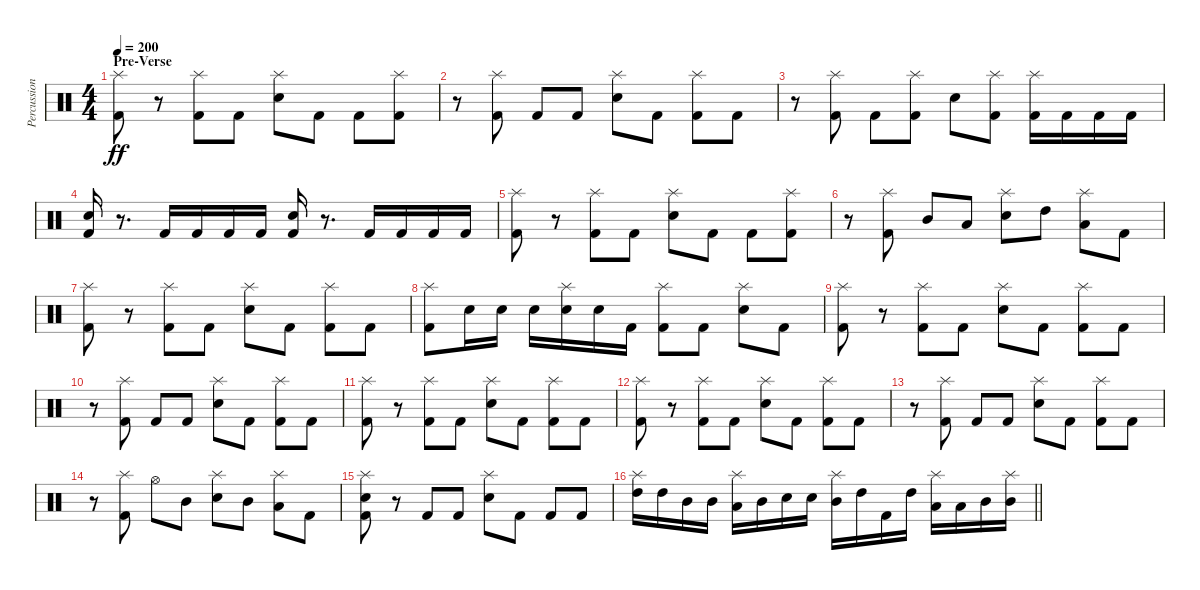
\track ("Percussion" "Percussion") {instrument percussion}
\staff {score}
\articulation defaults
\ts (4 4)
\section ("" "Pre-Verse")
\tempo 200
\clef neutral
\ks c
("Splash (hit)" "Kick (hit) 2").8{dy ff} r.8 ("Splash (hit)" "Kick (hit) 2").8 "Kick (hit) 2".8 ("Splash (hit)" "Electric Snare (hit)").8 "Kick (hit) 2".8 "Kick (hit) 2".8 ("Splash (hit)" "Kick (hit) 2").8 |
r.8 ("Splash (hit)" "Kick (hit) 2").8 "Kick (hit) 2".8 "Kick (hit) 2".8 ("Splash (hit)" "Electric Snare (hit)").8 "Kick (hit) 2".8 ("Splash (hit)" "Kick (hit) 2").8 "Kick (hit) 2".8 |
r.8 ("Splash (hit)" "Kick (hit) 2").8 "Kick (hit) 2".8 ("Splash (hit)" "Kick (hit) 2").8 "Electric Snare (hit)".8 ("Splash (hit)" "Kick (hit) 2").8 ("Splash (hit)" "Kick (hit) 2").16 "Kick (hit) 2".16 "Kick (hit) 2".16 "Kick (hit) 2".16 |
("Electric Snare (hit)" "Kick (hit) 2").16 r.8{d} "Kick (hit) 2".16 "Kick (hit) 2".16 "Kick (hit) 2".16 "Kick (hit) 2".16 ("Electric Snare (hit)" "Kick (hit) 2").16 r.8{d} "Kick (hit) 2".16 "Kick (hit) 2".16 "Kick (hit) 2".16 "Kick (hit) 2".16 |
("Splash (hit)" "Kick (hit) 2").8 r.8 ("Splash (hit)" "Kick (hit) 2").8 "Kick (hit) 2".8 ("Splash (hit)" "Electric Snare (hit)").8 "Kick (hit) 2".8 "Kick (hit) 2".8 ("Splash (hit)" "Kick (hit) 2").8 |
r.8 ("Splash (hit)" "Kick (hit) 2").8 "Mid Tom (hit)".8 "Low Tom (hit)".8 ("Splash (hit)" "Electric Snare (hit)").8 "High Tom (hit)".8 ("Splash (hit)" "Low Tom (hit)").8 "Kick (hit) 2".8 |
("Splash (hit)" "Kick (hit) 2").8 r.8 ("Splash (hit)" "Kick (hit) 2").8 "Kick (hit) 2".8 ("Splash (hit)" "Electric Snare (hit)").8 "Kick (hit) 2".8 ("Splash (hit)" "Kick (hit) 2").8 "Kick (hit) 2".8 |
("Splash (hit)" "Kick (hit) 2").8 "Electric Snare (hit)".16 "Electric Snare (hit)".16 "Electric Snare (hit)".16 ("Splash (hit)" "Electric Snare (hit)").16 "Electric Snare (hit)".16 "Kick (hit) 2".16 ("Splash (hit)" "Kick (hit) 2").8 "Kick (hit) 2".8 ("Splash (hit)" "Electric Snare (hit)").8 "Kick (hit) 2".8 |
("Splash (hit)" "Kick (hit) 2").8 r.8 ("Splash (hit)" "Kick (hit) 2").8 "Kick (hit) 2".8 ("Splash (hit)" "Electric Snare (hit)").8 "Kick (hit) 2".8 ("Splash (hit)" "Kick (hit) 2").8 "Kick (hit) 2".8 |
r.8 ("Splash (hit)" "Kick (hit) 2").8 "Kick (hit) 2".8 "Kick (hit) 2".8 ("Splash (hit)" "Electric Snare (hit)").8 "Kick (hit) 2".8 ("Splash (hit)" "Kick (hit) 2").8 "Kick (hit) 2".8 |
("Splash (hit)" "Kick (hit) 2").8 r.8 ("Splash (hit)" "Kick (hit) 2").8 "Kick (hit) 2".8 ("Splash (hit)" "Electric Snare (hit)").8 "Kick (hit) 2".8 ("Splash (hit)" "Kick (hit) 2").8 "Kick (hit) 2".8 |
("Splash (hit)" "Kick (hit) 2").8 r.8 ("Splash (hit)" "Kick (hit) 2").8 "Kick (hit) 2".8 ("Splash (hit)" "Electric Snare (hit)").8 "Kick (hit) 2".8 ("Splash (hit)" "Kick (hit) 2").8 "Kick (hit) 2".8 |
r.8 ("Splash (hit)" "Kick (hit) 2").8 "Kick (hit) 2".8 "Kick (hit) 2".8 ("Splash (hit)" "Electric Snare (hit)").8 "Kick (hit) 2".8 ("Splash (hit)" "Kick (hit) 2").8 "Kick (hit) 2".8 |
r.8 ("Splash (hit)" "Kick (hit) 2").8 "Hi-Hat (open)".8 "Mid Tom (hit)".8 ("Splash (hit)" "Electric Snare (hit)").8 "Mid Tom (hit)".8 ("Splash (hit)" "Low Tom (hit)").8 "Kick (hit) 2".8 |
("Splash (hit)" "Electric Snare (hit)" "Kick (hit) 2").8 r.8 "Kick (hit) 2".8 "Kick (hit) 2".8 ("Splash (hit)" "Electric Snare (hit)").8 "Kick (hit) 2".8 "Kick (hit) 2".8 "Kick (hit) 2".8 |
\barLineRight lightlight
("Splash (hit)" "High Tom (hit)").16 "High Tom (hit)".16 "Mid Tom (hit)".16 "Mid Tom (hit)".16 ("Splash (hit)" "Low Tom (hit)").16 "Mid Tom (hit)".16 "Electric Snare (hit)".16 "Electric Snare (hit)".16 ("Splash (hit)" "Mid Tom (hit)").16 "High Tom (hit)".16 "Kick (hit) 2".16 "High Tom (hit)".16 ("Splash (hit)" "Low Tom (hit)").16 "Low Tom (hit)".16 "Mid Tom (hit)".16 ("Splash (hit)" "Mid Tom (hit)").16
